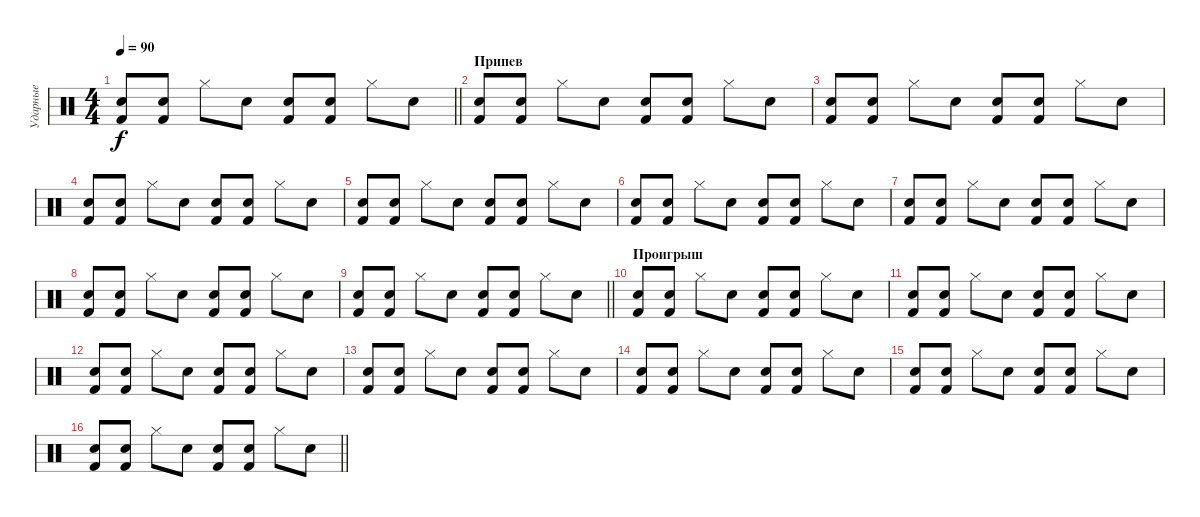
\track ("Ударные" "Ударные") {instrument percussion}
\staff {score}
\articulation defaults
\ts (4 4)
\tempo 90
\clef neutral
\barLineRight lightlight
\ks c
("Kick (hit) 2" "Snare (hit) 2").8{dy f} ("Kick (hit) 2" "Snare (hit) 2").8 "Hi-Hat (closed)".8 "Snare (hit) 2".8 ("Kick (hit) 2" "Snare (hit) 2").8 ("Kick (hit) 2" "Snare (hit) 2").8 "Hi-Hat (closed)".8 "Snare (hit) 2".8 |
\section ("" "Припев")
("Kick (hit) 2" "Snare (hit) 2").8 ("Kick (hit) 2" "Snare (hit) 2").8 "Hi-Hat (closed)".8 "Snare (hit) 2".8 ("Kick (hit) 2" "Snare (hit) 2").8 ("Kick (hit) 2" "Snare (hit) 2").8 "Hi-Hat (closed)".8 "Snare (hit) 2".8 |
("Kick (hit) 2" "Snare (hit) 2").8 ("Kick (hit) 2" "Snare (hit) 2").8 "Hi-Hat (closed)".8 "Snare (hit) 2".8 ("Kick (hit) 2" "Snare (hit) 2").8 ("Kick (hit) 2" "Snare (hit) 2").8 "Hi-Hat (closed)".8 "Snare (hit) 2".8 |
("Kick (hit) 2" "Snare (hit) 2").8 ("Kick (hit) 2" "Snare (hit) 2").8 "Hi-Hat (closed)".8 "Snare (hit) 2".8 ("Kick (hit) 2" "Snare (hit) 2").8 ("Kick (hit) 2" "Snare (hit) 2").8 "Hi-Hat (closed)".8 "Snare (hit) 2".8 |
("Kick (hit) 2" "Snare (hit) 2").8 ("Kick (hit) 2" "Snare (hit) 2").8 "Hi-Hat (closed)".8 "Snare (hit) 2".8 ("Kick (hit) 2" "Snare (hit) 2").8 ("Kick (hit) 2" "Snare (hit) 2").8 "Hi-Hat (closed)".8 "Snare (hit) 2".8 |
("Kick (hit) 2" "Snare (hit) 2").8 ("Kick (hit) 2" "Snare (hit) 2").8 "Hi-Hat (closed)".8 "Snare (hit) 2".8 ("Kick (hit) 2" "Snare (hit) 2").8 ("Kick (hit) 2" "Snare (hit) 2").8 "Hi-Hat (closed)".8 "Snare (hit) 2".8 |
("Kick (hit) 2" "Snare (hit) 2").8 ("Kick (hit) 2" "Snare (hit) 2").8 "Hi-Hat (closed)".8 "Snare (hit) 2".8 ("Kick (hit) 2" "Snare (hit) 2").8 ("Kick (hit) 2" "Snare (hit) 2").8 "Hi-Hat (closed)".8 "Snare (hit) 2".8 |
("Kick (hit) 2" "Snare (hit) 2").8 ("Kick (hit) 2" "Snare (hit) 2").8 "Hi-Hat (closed)".8 "Snare (hit) 2".8 ("Kick (hit) 2" "Snare (hit) 2").8 ("Kick (hit) 2" "Snare (hit) 2").8 "Hi-Hat (closed)".8 "Snare (hit) 2".8 |
\barLineRight lightlight
("Kick (hit) 2" "Snare (hit) 2").8 ("Kick (hit) 2" "Snare (hit) 2").8 "Hi-Hat (closed)".8 "Snare (hit) 2".8 ("Kick (hit) 2" "Snare (hit) 2").8 ("Kick (hit) 2" "Snare (hit) 2").8 "Hi-Hat (closed)".8 "Snare (hit) 2".8 |
\section ("" "Проигрыш")
("Kick (hit) 2" "Snare (hit) 2").8 ("Kick (hit) 2" "Snare (hit) 2").8 "Hi-Hat (closed)".8 "Snare (hit) 2".8 ("Kick (hit) 2" "Snare (hit) 2").8 ("Kick (hit) 2" "Snare (hit) 2").8 "Hi-Hat (closed)".8 "Snare (hit) 2".8 |
("Kick (hit) 2" "Snare (hit) 2").8 ("Kick (hit) 2" "Snare (hit) 2").8 "Hi-Hat (closed)".8 "Snare (hit) 2".8 ("Kick (hit) 2" "Snare (hit) 2").8 ("Kick (hit) 2" "Snare (hit) 2").8 "Hi-Hat (closed)".8 "Snare (hit) 2".8 |
("Kick (hit) 2" "Snare (hit) 2").8 ("Kick (hit) 2" "Snare (hit) 2").8 "Hi-Hat (closed)".8 "Snare (hit) 2".8 ("Kick (hit) 2" "Snare (hit) 2").8 ("Kick (hit) 2" "Snare (hit) 2").8 "Hi-Hat (closed)".8 "Snare (hit) 2".8 |
("Kick (hit) 2" "Snare (hit) 2").8 ("Kick (hit) 2" "Snare (hit) 2").8 "Hi-Hat (closed)".8 "Snare (hit) 2".8 ("Kick (hit) 2" "Snare (hit) 2").8 ("Kick (hit) 2" "Snare (hit) 2").8 "Hi-Hat (closed)".8 "Snare (hit) 2".8 |
("Kick (hit) 2" "Snare (hit) 2").8 ("Kick (hit) 2" "Snare (hit) 2").8 "Hi-Hat (closed)".8 "Snare (hit) 2".8 ("Kick (hit) 2" "Snare (hit) 2").8 ("Kick (hit) 2" "Snare (hit) 2").8 "Hi-Hat (closed)".8 "Snare (hit) 2".8 |
("Kick (hit) 2" "Snare (hit) 2").8 ("Kick (hit) 2" "Snare (hit) 2").8 "Hi-Hat (closed)".8 "Snare (hit) 2".8 ("Kick (hit) 2" "Snare (hit) 2").8 ("Kick (hit) 2" "Snare (hit) 2").8 "Hi-Hat (closed)".8 "Snare (hit) 2".8 |
\barLineRight lightlight
("Kick (hit) 2" "Snare (hit) 2").8 ("Kick (hit) 2" "Snare (hit) 2").8 "Hi-Hat (closed)".8 "Snare (hit) 2".8 ("Kick (hit) 2" "Snare (hit) 2").8 ("Kick (hit) 2" "Snare (hit) 2").8 "Hi-Hat (closed)".8 "Snare (hit) 2".8
